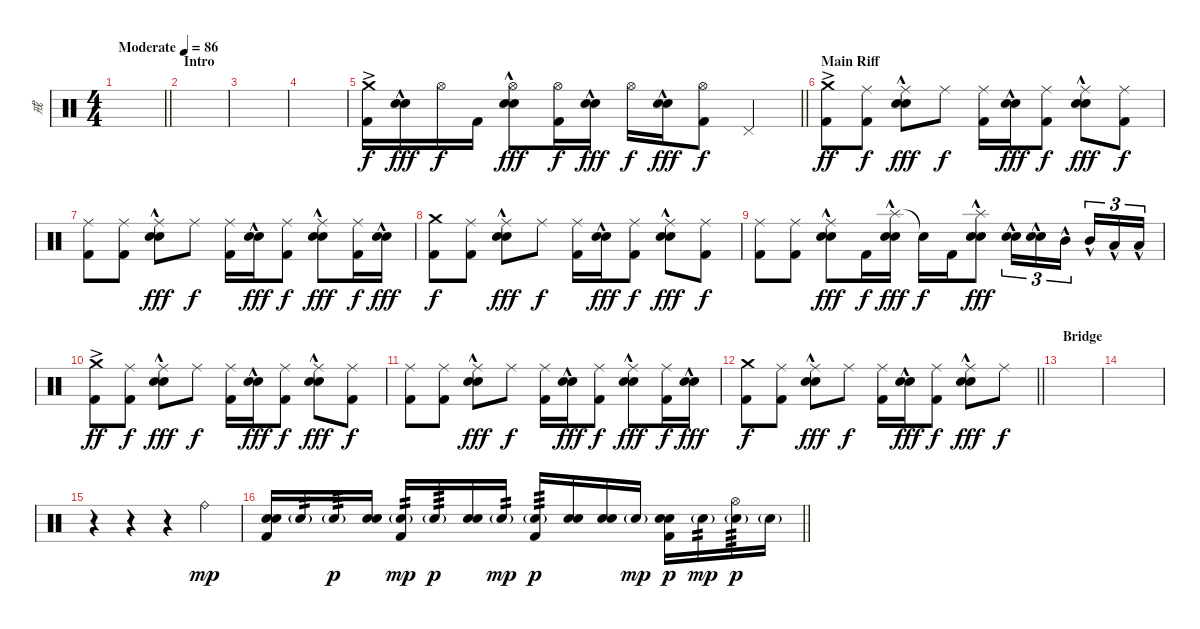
\track ("戒" "戒") {instrument percussion}
\staff {score}
\articulation defaults
\ts (4 4)
\tempo (86 "Moderate")
\clef neutral
\barLineRight lightlight
\ks c
|
\section ("" "Intro")
|
|
|
\barLineRight lightlight
("Crash medium (hit)"{ac} "Kick (hit) 2").16 ("Electric Snare (hit)"{hac} "Snare (hit) 2"{hac}).16{dy fff} "Hi-Hat (open)".16{dy f} "Kick (hit) 2".16 ("Hi-Hat (open)" "Electric Snare (hit)"{hac} "Snare (hit) 2"{hac}).8{dy fff} ("Hi-Hat (open)" "Kick (hit) 2").16{dy f} ("Electric Snare (hit)"{hac} "Snare (hit) 2"{hac}).16{dy fff} "Hi-Hat (open)".16{dy f} ("Electric Snare (hit)"{hac} "Snare (hit) 2"{hac}).16{dy fff} ("Hi-Hat (open)" "Kick (hit) 2").8{dy f} "Pedal Hi-Hat (hit)".4 |
\section ("" "Main Riff")
("Crash medium (hit)"{ac} "Kick (hit) 2").8{dy ff} ("Ride (middle)" "Kick (hit) 2").8{dy f} ("Ride (middle)" "Electric Snare (hit)"{hac} "Snare (hit) 2"{hac}).8{dy fff} "Ride (middle)".8{dy f} ("Ride (middle)" "Kick (hit) 2").16 ("Electric Snare (hit)"{hac} "Snare (hit) 2"{hac}).16{dy fff} ("Ride (middle)" "Kick (hit) 2").8{dy f} ("Ride (middle)" "Electric Snare (hit)"{hac} "Snare (hit) 2"{hac}).8{dy fff} ("Ride (middle)" "Kick (hit) 2").8{dy f} |
("Ride (middle)" "Kick (hit) 2").8 ("Ride (middle)" "Kick (hit) 2").8 ("Ride (middle)" "Electric Snare (hit)"{hac} "Snare (hit) 2"{hac}).8{dy fff} "Ride (middle)".8{dy f} ("Ride (middle)" "Kick (hit) 2").16 ("Electric Snare (hit)"{hac} "Snare (hit) 2"{hac}).16{dy fff} ("Ride (middle)" "Kick (hit) 2").8{dy f} ("Ride (middle)" "Electric Snare (hit)"{hac} "Snare (hit) 2"{hac}).8{dy fff} ("Ride (middle)" "Kick (hit) 2").16{dy f} ("Electric Snare (hit)"{hac} "Snare (hit) 2"{hac}).16{dy fff} |
("Crash medium (hit)" "Kick (hit) 2").8{dy f} ("Ride (middle)" "Kick (hit) 2").8 ("Ride (middle)" "Electric Snare (hit)"{hac} "Snare (hit) 2"{hac}).8{dy fff} "Ride (middle)".8{dy f} ("Ride (middle)" "Kick (hit) 2").16 ("Electric Snare (hit)"{hac} "Snare (hit) 2"{hac}).16{dy fff} ("Ride (middle)" "Kick (hit) 2").8{dy f} ("Ride (middle)" "Electric Snare (hit)"{hac} "Snare (hit) 2"{hac}).8{dy fff} ("Ride (middle)" "Kick (hit) 2").8{dy f} |
("Ride (middle)" "Kick (hit) 2").8 ("Ride (middle)" "Kick (hit) 2").8 ("Ride (middle)" "Electric Snare (hit)"{hac} "Snare (hit) 2"{hac}).8{dy fff} "Kick (hit) 2".16{dy f} ("Splash (hit)"{hac} "Electric Snare (hit)"{hac} "Snare (hit) 2"{hac}).16{dy fff} "Snare (hit)"{t}.16{dy f} "Kick (hit) 2".16 ("Splash (hit)"{hac} "Electric Snare (hit)"{hac} "Snare (hit) 2"{hac}).8{dy fff} ("Electric Snare (hit)"{hac} "Snare (hit) 2").16{tu (3 2)} ("Electric Snare (hit)"{hac} "Snare (hit) 2").16{tu (3 2)} "Mid Tom (hit)"{hac}.16{tu (3 2) beam splitsecondary} "Mid Tom (hit)"{hac}.16{tu (3 2)} "Low Tom (hit)"{hac}.16{tu (3 2)} "Low Tom (hit)"{hac}.16{tu (3 2)} |
("Crash medium (hit)"{ac} "Kick (hit) 2").8{dy ff} ("Ride (middle)" "Kick (hit) 2").8{dy f} ("Ride (middle)" "Electric Snare (hit)"{hac} "Snare (hit) 2"{hac}).8{dy fff} "Ride (middle)".8{dy f} ("Ride (middle)" "Kick (hit) 2").16 ("Electric Snare (hit)"{hac} "Snare (hit) 2"{hac}).16{dy fff} ("Ride (middle)" "Kick (hit) 2").8{dy f} ("Ride (middle)" "Electric Snare (hit)"{hac} "Snare (hit) 2"{hac}).8{dy fff} ("Ride (middle)" "Kick (hit) 2").8{dy f} |
("Ride (middle)" "Kick (hit) 2").8 ("Ride (middle)" "Kick (hit) 2").8 ("Ride (middle)" "Electric Snare (hit)"{hac} "Snare (hit) 2"{hac}).8{dy fff} "Ride (middle)".8{dy f} ("Ride (middle)" "Kick (hit) 2").16 ("Electric Snare (hit)"{hac} "Snare (hit) 2"{hac}).16{dy fff} ("Ride (middle)" "Kick (hit) 2").8{dy f} ("Ride (middle)" "Electric Snare (hit)"{hac} "Snare (hit) 2"{hac}).8{dy fff} ("Ride (middle)" "Kick (hit) 2").16{dy f} ("Electric Snare (hit)"{hac} "Snare (hit) 2"{hac}).16{dy fff} |
\barLineRight lightlight
("Crash medium (hit)" "Kick (hit) 2").8{dy f} ("Ride (middle)" "Kick (hit) 2").8 ("Ride (middle)" "Electric Snare (hit)"{hac} "Snare (hit) 2"{hac}).8{dy fff} "Ride (middle)".8{dy f} ("Ride (middle)" "Kick (hit) 2").16 ("Electric Snare (hit)"{hac} "Snare (hit) 2"{hac}).16{dy fff} ("Ride (middle)" "Kick (hit) 2").8{dy f} ("Ride (middle)" "Electric Snare (hit)"{hac} "Snare (hit) 2"{hac}).8{dy fff} "Ride (middle)".8{dy f} |
\section ("" "Bridge")
|
|
r.4 r.4 r.4 "Ride (bell)".4{dy mp} |
\barLineRight lightlight
("Electric Snare (hit)" "Snare (hit) 2" "Kick (hit) 2").16 "Snare (hit) 2"{g}.16{tp 2} "Snare (hit) 2"{g}.16{tp 3 dy p} ("Electric Snare (hit)" "Snare (hit) 2").16 ("Snare (hit) 2"{g} "Kick (hit) 2").16{tp 2 dy mp} "Snare (hit) 2"{g}.16{tp 3 dy p} ("Electric Snare (hit)" "Snare (hit) 2").16 "Snare (hit) 2"{g}.16{tp 2 dy mp} ("Snare (hit) 2"{g} "Kick (hit) 2").16{tp 3 dy p} ("Electric Snare (hit)" "Snare (hit) 2").16 ("Electric Snare (hit)" "Snare (hit) 2").16 "Snare (hit) 2"{g}.16{dy mp} ("Electric Snare (hit)" "Snare (hit) 2" "Kick (hit) 2").16{dy p} "Snare (hit) 2"{g}.16{tp 2 dy mp} ("Hi-Hat (open)" "Snare (hit) 2"{g}).16{tp 3 dy p} "Snare (hit) 2"{g}.16
